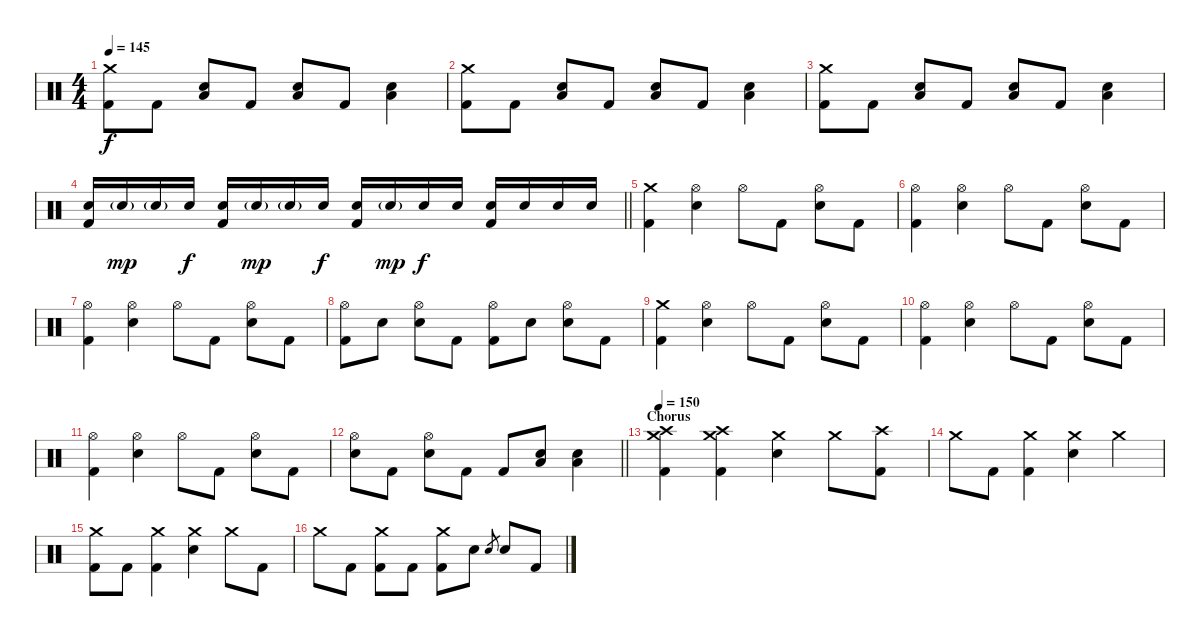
\track "" {instrument percussion}
\staff {score}
\articulation defaults
\ts (4 4)
\tempo 145
\clef neutral
\ks c
("Crash medium (hit)" "Kick (hit) 2").8{dy f} "Kick (hit) 2".8 ("Low Floor Tom (hit)" "Electric Snare (hit)").8 "Kick (hit) 2".8 ("Low Floor Tom (hit)" "Electric Snare (hit)").8 "Kick (hit) 2".8 ("Low Floor Tom (hit)" "Electric Snare (hit)").4 |
("Crash medium (hit)" "Kick (hit) 2").8 "Kick (hit) 2".8 ("Low Floor Tom (hit)" "Electric Snare (hit)").8 "Kick (hit) 2".8 ("Low Floor Tom (hit)" "Electric Snare (hit)").8 "Kick (hit) 2".8 ("Low Floor Tom (hit)" "Electric Snare (hit)").4 |
("Crash medium (hit)" "Kick (hit) 2").8 "Kick (hit) 2".8 ("Low Floor Tom (hit)" "Electric Snare (hit)").8 "Kick (hit) 2".8 ("Low Floor Tom (hit)" "Electric Snare (hit)").8 "Kick (hit) 2".8 ("Low Floor Tom (hit)" "Electric Snare (hit)").4 |
\barLineRight lightlight
("Electric Snare (hit)" "Kick (hit) 2").16 "Electric Snare (hit)"{g}.16{dy mp} "Electric Snare (hit)"{g}.16 "Electric Snare (hit)".16{dy f} ("Electric Snare (hit)" "Kick (hit) 2").16 "Electric Snare (hit)"{g}.16{dy mp} "Electric Snare (hit)"{g}.16 "Electric Snare (hit)".16{dy f} ("Electric Snare (hit)" "Kick (hit) 2").16 "Electric Snare (hit)"{g}.16{dy mp} "Electric Snare (hit)".16{dy f} "Electric Snare (hit)".16 ("Electric Snare (hit)" "Kick (hit) 2").16 "Electric Snare (hit)".16 "Electric Snare (hit)".16 "Electric Snare (hit)".16 |
("Crash medium (hit)" "Kick (hit) 2").4 ("Hi-Hat (open)" "Electric Snare (hit)").4 "Hi-Hat (open)".8 "Kick (hit) 2".8 ("Hi-Hat (open)" "Electric Snare (hit)").8 "Kick (hit) 2".8 |
("Hi-Hat (open)" "Kick (hit) 2").4 ("Hi-Hat (open)" "Electric Snare (hit)").4 "Hi-Hat (open)".8 "Kick (hit) 2".8 ("Hi-Hat (open)" "Electric Snare (hit)").8 "Kick (hit) 2".8 |
("Hi-Hat (open)" "Kick (hit) 2").4 ("Hi-Hat (open)" "Electric Snare (hit)").4 "Hi-Hat (open)".8 "Kick (hit) 2".8 ("Hi-Hat (open)" "Electric Snare (hit)").8 "Kick (hit) 2".8 |
("Hi-Hat (open)" "Kick (hit) 2").8 "Electric Snare (hit)".8 ("Hi-Hat (open)" "Electric Snare (hit)").8 "Kick (hit) 2".8 ("Hi-Hat (open)" "Kick (hit) 2").8 "Electric Snare (hit)".8 ("Hi-Hat (open)" "Electric Snare (hit)").8 "Kick (hit) 2".8 |
("Crash medium (hit)" "Kick (hit) 2").4 ("Hi-Hat (open)" "Electric Snare (hit)").4 "Hi-Hat (open)".8 "Kick (hit) 2".8 ("Hi-Hat (open)" "Electric Snare (hit)").8 "Kick (hit) 2".8 |
("Hi-Hat (open)" "Kick (hit) 2").4 ("Hi-Hat (open)" "Electric Snare (hit)").4 "Hi-Hat (open)".8 "Kick (hit) 2".8 ("Hi-Hat (open)" "Electric Snare (hit)").8 "Kick (hit) 2".8 |
("Hi-Hat (open)" "Kick (hit) 2").4 ("Hi-Hat (open)" "Electric Snare (hit)").4 "Hi-Hat (open)".8 "Kick (hit) 2".8 ("Hi-Hat (open)" "Electric Snare (hit)").8 "Kick (hit) 2".8 |
\barLineRight lightlight
("Hi-Hat (open)" "Electric Snare (hit)").8 "Kick (hit) 2".8 ("Hi-Hat (open)" "Electric Snare (hit)").8 "Kick (hit) 2".8 "Kick (hit) 2".8 ("Low Floor Tom (hit)" "Electric Snare (hit)").8 ("Low Floor Tom (hit)" "Electric Snare (hit)").4 |
\section ("" "Chorus")
\tempo 150
("Crash medium (hit)" "Crash high (hit)" "Kick (hit) 2").4 ("Crash medium (hit)" "Crash high (hit)" "Kick (hit) 2").4 ("Crash medium (hit)" "Electric Snare (hit)").4 "Crash medium (hit)".8 ("Crash high (hit)" "Kick (hit) 2").8 |
"Crash medium (hit)".8 "Kick (hit) 2".8 ("Crash medium (hit)" "Kick (hit) 2").4 ("Crash medium (hit)" "Electric Snare (hit)").4 "Crash medium (hit)".4 |
("Crash medium (hit)" "Kick (hit) 2").8 "Kick (hit) 2".8 ("Crash medium (hit)" "Kick (hit) 2").4 ("Crash medium (hit)" "Electric Snare (hit)").4 "Crash medium (hit)".8 "Kick (hit) 2".8 |
"Crash medium (hit)".8 "Kick (hit) 2".8 ("Crash medium (hit)" "Kick (hit) 2").8 "Kick (hit) 2".8 ("Crash medium (hit)" "Kick (hit) 2").8 "Electric Snare (hit)".8 "Electric Snare (hit)".8{gr} "Electric Snare (hit)".8 "Kick (hit) 2".8
